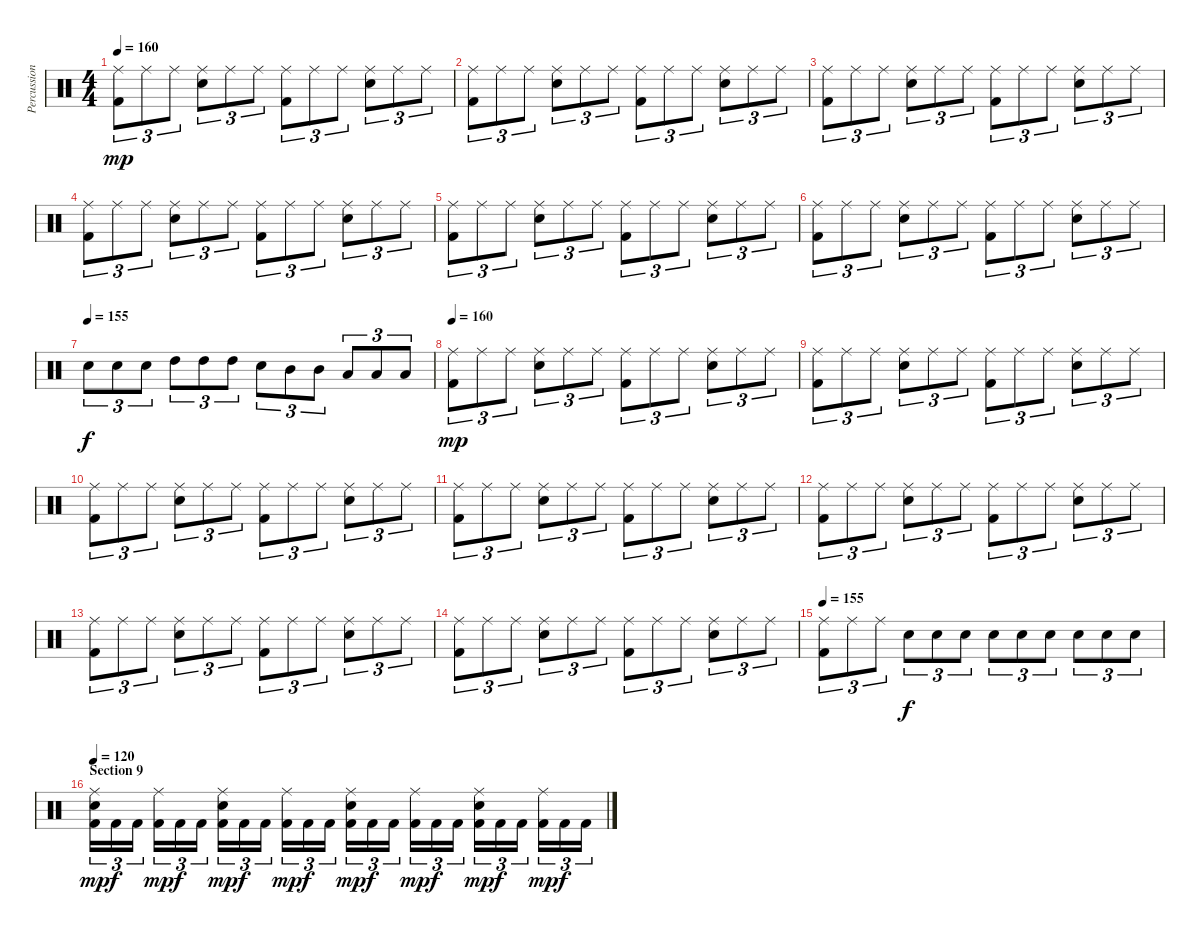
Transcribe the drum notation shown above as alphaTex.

\track ("Percussion" "Percussion") {instrument percussion}
\staff {score}
\articulation defaults
\ts (4 4)
\tempo 160
\clef neutral
\ks c
("Ride (middle)" "Kick (hit) 2").8{tu (3 2) dy mp} "Ride (middle)".8{tu (3 2)} "Ride (middle)".8{tu (3 2)} ("Ride (middle)" "Electric Snare (hit)").8{tu (3 2)} "Ride (middle)".8{tu (3 2)} "Ride (middle)".8{tu (3 2)} ("Ride (middle)" "Kick (hit) 2").8{tu (3 2)} "Ride (middle)".8{tu (3 2)} "Ride (middle)".8{tu (3 2)} ("Ride (middle)" "Electric Snare (hit)").8{tu (3 2)} "Ride (middle)".8{tu (3 2)} "Ride (middle)".8{tu (3 2)} |
("Ride (middle)" "Kick (hit) 2").8{tu (3 2)} "Ride (middle)".8{tu (3 2)} "Ride (middle)".8{tu (3 2)} ("Ride (middle)" "Electric Snare (hit)").8{tu (3 2)} "Ride (middle)".8{tu (3 2)} "Ride (middle)".8{tu (3 2)} ("Ride (middle)" "Kick (hit) 2").8{tu (3 2)} "Ride (middle)".8{tu (3 2)} "Ride (middle)".8{tu (3 2)} ("Ride (middle)" "Electric Snare (hit)").8{tu (3 2)} "Ride (middle)".8{tu (3 2)} "Ride (middle)".8{tu (3 2)} |
("Ride (middle)" "Kick (hit) 2").8{tu (3 2)} "Ride (middle)".8{tu (3 2)} "Ride (middle)".8{tu (3 2)} ("Ride (middle)" "Electric Snare (hit)").8{tu (3 2)} "Ride (middle)".8{tu (3 2)} "Ride (middle)".8{tu (3 2)} ("Ride (middle)" "Kick (hit) 2").8{tu (3 2)} "Ride (middle)".8{tu (3 2)} "Ride (middle)".8{tu (3 2)} ("Ride (middle)" "Electric Snare (hit)").8{tu (3 2)} "Ride (middle)".8{tu (3 2)} "Ride (middle)".8{tu (3 2)} |
("Ride (middle)" "Kick (hit) 2").8{tu (3 2)} "Ride (middle)".8{tu (3 2)} "Ride (middle)".8{tu (3 2)} ("Ride (middle)" "Electric Snare (hit)").8{tu (3 2)} "Ride (middle)".8{tu (3 2)} "Ride (middle)".8{tu (3 2)} ("Ride (middle)" "Kick (hit) 2").8{tu (3 2)} "Ride (middle)".8{tu (3 2)} "Ride (middle)".8{tu (3 2)} ("Ride (middle)" "Electric Snare (hit)").8{tu (3 2)} "Ride (middle)".8{tu (3 2)} "Ride (middle)".8{tu (3 2)} |
("Ride (middle)" "Kick (hit) 2").8{tu (3 2)} "Ride (middle)".8{tu (3 2)} "Ride (middle)".8{tu (3 2)} ("Ride (middle)" "Electric Snare (hit)").8{tu (3 2)} "Ride (middle)".8{tu (3 2)} "Ride (middle)".8{tu (3 2)} ("Ride (middle)" "Kick (hit) 2").8{tu (3 2)} "Ride (middle)".8{tu (3 2)} "Ride (middle)".8{tu (3 2)} ("Ride (middle)" "Electric Snare (hit)").8{tu (3 2)} "Ride (middle)".8{tu (3 2)} "Ride (middle)".8{tu (3 2)} |
("Ride (middle)" "Kick (hit) 2").8{tu (3 2)} "Ride (middle)".8{tu (3 2)} "Ride (middle)".8{tu (3 2)} ("Ride (middle)" "Electric Snare (hit)").8{tu (3 2)} "Ride (middle)".8{tu (3 2)} "Ride (middle)".8{tu (3 2)} ("Ride (middle)" "Kick (hit) 2").8{tu (3 2)} "Ride (middle)".8{tu (3 2)} "Ride (middle)".8{tu (3 2)} ("Ride (middle)" "Electric Snare (hit)").8{tu (3 2)} "Ride (middle)".8{tu (3 2)} "Ride (middle)".8{tu (3 2)} |
\tempo (155)
"Electric Snare (hit)".8{tu (3 2) dy f} "Electric Snare (hit)".8{tu (3 2)} "Electric Snare (hit)".8{tu (3 2)} "High Tom (hit)".8{tu (3 2)} "High Tom (hit)".8{tu (3 2)} "High Tom (hit)".8{tu (3 2)} "Electric Snare (hit)".8{tu (3 2)} "Mid Tom (hit)".8{tu (3 2)} "Mid Tom (hit)".8{tu (3 2)} "Low Tom (hit)".8{tu (3 2)} "Low Tom (hit)".8{tu (3 2)} "Low Tom (hit)".8{tu (3 2)} |
\tempo 160
("Ride (middle)" "Kick (hit) 2").8{tu (3 2) dy mp} "Ride (middle)".8{tu (3 2)} "Ride (middle)".8{tu (3 2)} ("Ride (middle)" "Electric Snare (hit)").8{tu (3 2)} "Ride (middle)".8{tu (3 2)} "Ride (middle)".8{tu (3 2)} ("Ride (middle)" "Kick (hit) 2").8{tu (3 2)} "Ride (middle)".8{tu (3 2)} "Ride (middle)".8{tu (3 2)} ("Ride (middle)" "Electric Snare (hit)").8{tu (3 2)} "Ride (middle)".8{tu (3 2)} "Ride (middle)".8{tu (3 2)} |
("Ride (middle)" "Kick (hit) 2").8{tu (3 2)} "Ride (middle)".8{tu (3 2)} "Ride (middle)".8{tu (3 2)} ("Ride (middle)" "Electric Snare (hit)").8{tu (3 2)} "Ride (middle)".8{tu (3 2)} "Ride (middle)".8{tu (3 2)} ("Ride (middle)" "Kick (hit) 2").8{tu (3 2)} "Ride (middle)".8{tu (3 2)} "Ride (middle)".8{tu (3 2)} ("Ride (middle)" "Electric Snare (hit)").8{tu (3 2)} "Ride (middle)".8{tu (3 2)} "Ride (middle)".8{tu (3 2)} |
("Ride (middle)" "Kick (hit) 2").8{tu (3 2)} "Ride (middle)".8{tu (3 2)} "Ride (middle)".8{tu (3 2)} ("Ride (middle)" "Electric Snare (hit)").8{tu (3 2)} "Ride (middle)".8{tu (3 2)} "Ride (middle)".8{tu (3 2)} ("Ride (middle)" "Kick (hit) 2").8{tu (3 2)} "Ride (middle)".8{tu (3 2)} "Ride (middle)".8{tu (3 2)} ("Ride (middle)" "Electric Snare (hit)").8{tu (3 2)} "Ride (middle)".8{tu (3 2)} "Ride (middle)".8{tu (3 2)} |
("Ride (middle)" "Kick (hit) 2").8{tu (3 2)} "Ride (middle)".8{tu (3 2)} "Ride (middle)".8{tu (3 2)} ("Ride (middle)" "Electric Snare (hit)").8{tu (3 2)} "Ride (middle)".8{tu (3 2)} "Ride (middle)".8{tu (3 2)} ("Ride (middle)" "Kick (hit) 2").8{tu (3 2)} "Ride (middle)".8{tu (3 2)} "Ride (middle)".8{tu (3 2)} ("Ride (middle)" "Electric Snare (hit)").8{tu (3 2)} "Ride (middle)".8{tu (3 2)} "Ride (middle)".8{tu (3 2)} |
("Ride (middle)" "Kick (hit) 2").8{tu (3 2)} "Ride (middle)".8{tu (3 2)} "Ride (middle)".8{tu (3 2)} ("Ride (middle)" "Electric Snare (hit)").8{tu (3 2)} "Ride (middle)".8{tu (3 2)} "Ride (middle)".8{tu (3 2)} ("Ride (middle)" "Kick (hit) 2").8{tu (3 2)} "Ride (middle)".8{tu (3 2)} "Ride (middle)".8{tu (3 2)} ("Ride (middle)" "Electric Snare (hit)").8{tu (3 2)} "Ride (middle)".8{tu (3 2)} "Ride (middle)".8{tu (3 2)} |
("Ride (middle)" "Kick (hit) 2").8{tu (3 2)} "Ride (middle)".8{tu (3 2)} "Ride (middle)".8{tu (3 2)} ("Ride (middle)" "Electric Snare (hit)").8{tu (3 2)} "Ride (middle)".8{tu (3 2)} "Ride (middle)".8{tu (3 2)} ("Ride (middle)" "Kick (hit) 2").8{tu (3 2)} "Ride (middle)".8{tu (3 2)} "Ride (middle)".8{tu (3 2)} ("Ride (middle)" "Electric Snare (hit)").8{tu (3 2)} "Ride (middle)".8{tu (3 2)} "Ride (middle)".8{tu (3 2)} |
("Ride (middle)" "Kick (hit) 2").8{tu (3 2)} "Ride (middle)".8{tu (3 2)} "Ride (middle)".8{tu (3 2)} ("Ride (middle)" "Electric Snare (hit)").8{tu (3 2)} "Ride (middle)".8{tu (3 2)} "Ride (middle)".8{tu (3 2)} ("Ride (middle)" "Kick (hit) 2").8{tu (3 2)} "Ride (middle)".8{tu (3 2)} "Ride (middle)".8{tu (3 2)} ("Ride (middle)" "Electric Snare (hit)").8{tu (3 2)} "Ride (middle)".8{tu (3 2)} "Ride (middle)".8{tu (3 2)} |
\tempo 155
("Ride (middle)" "Kick (hit) 2").8{tu (3 2)} "Ride (middle)".8{tu (3 2)} "Ride (middle)".8{tu (3 2)} "Electric Snare (hit)".8{tu (3 2) dy f} "Electric Snare (hit)".8{tu (3 2)} "Electric Snare (hit)".8{tu (3 2)} "Electric Snare (hit)".8{tu (3 2)} "Electric Snare (hit)".8{tu (3 2)} "Electric Snare (hit)".8{tu (3 2)} "Electric Snare (hit)".8{tu (3 2)} "Electric Snare (hit)".8{tu (3 2)} "Electric Snare (hit)".8{tu (3 2)} |
\section ("" "Section 9")
\tempo 120
("Ride (middle)" "Electric Snare (hit)" "Kick (hit) 2").16{tu (3 2) dy mp} "Kick (hit) 2".16{tu (3 2) dy f} "Kick (hit) 2".16{tu (3 2)} ("Ride (middle)" "Kick (hit) 2").16{tu (3 2) dy mp} "Kick (hit) 2".16{tu (3 2) dy f} "Kick (hit) 2".16{tu (3 2)} ("Ride (middle)" "Electric Snare (hit)" "Kick (hit) 2").16{tu (3 2) dy mp} "Kick (hit) 2".16{tu (3 2) dy f} "Kick (hit) 2".16{tu (3 2)} ("Ride (middle)" "Kick (hit) 2").16{tu (3 2) dy mp} "Kick (hit) 2".16{tu (3 2) dy f} "Kick (hit) 2".16{tu (3 2)} ("Ride (middle)" "Electric Snare (hit)" "Kick (hit) 2").16{tu (3 2) dy mp} "Kick (hit) 2".16{tu (3 2) dy f} "Kick (hit) 2".16{tu (3 2)} ("Ride (middle)" "Kick (hit) 2").16{tu (3 2) dy mp} "Kick (hit) 2".16{tu (3 2) dy f} "Kick (hit) 2".16{tu (3 2)} ("Ride (middle)" "Electric Snare (hit)" "Kick (hit) 2").16{tu (3 2) dy mp} "Kick (hit) 2".16{tu (3 2) dy f} "Kick (hit) 2".16{tu (3 2)} ("Ride (middle)" "Kick (hit) 2").16{tu (3 2) dy mp} "Kick (hit) 2".16{tu (3 2) dy f} "Kick (hit) 2".16{tu (3 2)}
